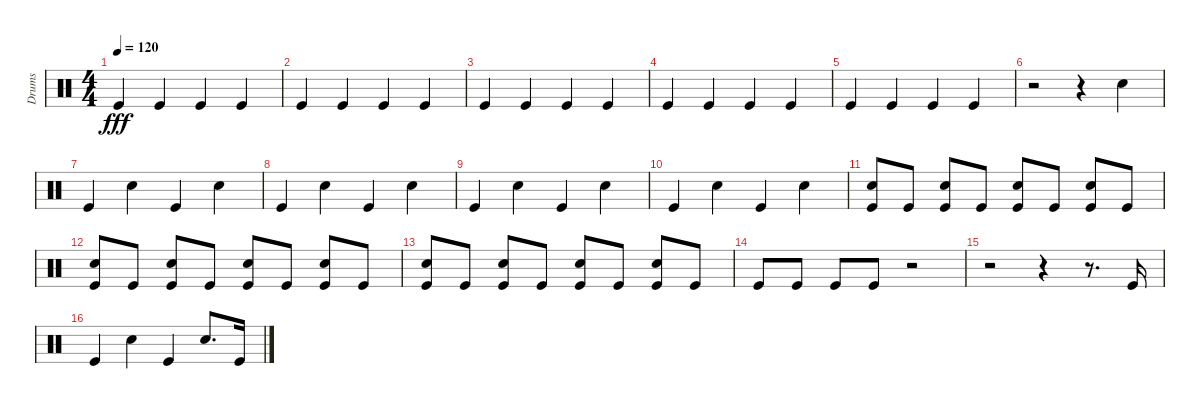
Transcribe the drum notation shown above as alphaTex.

\track ("Drums" "Drums") {instrument percussion}
\staff {score}
\articulation defaults
\ts (4 4)
\tempo 120
\clef neutral
\ks c "Kick (hit)".4{dy fff} "Kick (hit)".4 "Kick (hit)".4 "Kick (hit)".4
|
"Kick (hit)".4 "Kick (hit)".4 "Kick (hit)".4 "Kick (hit)".4 |
"Kick (hit)".4 "Kick (hit)".4 "Kick (hit)".4 "Kick (hit)".4 |
"Kick (hit)".4 "Kick (hit)".4 "Kick (hit)".4 "Kick (hit)".4 |
"Kick (hit)".4 "Kick (hit)".4 "Kick (hit)".4 "Kick (hit)".4 |
r.2 r.4 "Snare (hit) 2".4 |
"Kick (hit)".4 "Snare (hit) 2".4 "Kick (hit)".4 "Snare (hit) 2".4 |
"Kick (hit)".4 "Snare (hit) 2".4 "Kick (hit)".4 "Snare (hit) 2".4 |
"Kick (hit)".4 "Snare (hit) 2".4 "Kick (hit)".4 "Snare (hit) 2".4 |
"Kick (hit)".4 "Snare (hit) 2".4 "Kick (hit)".4 "Snare (hit) 2".4 |
("Snare (hit) 2" "Kick (hit)").8 "Kick (hit)".8 ("Snare (hit) 2" "Kick (hit)").8 "Kick (hit)".8 ("Snare (hit) 2" "Kick (hit)").8 "Kick (hit)".8 ("Snare (hit) 2" "Kick (hit)").8 "Kick (hit)".8 |
("Snare (hit) 2" "Kick (hit)").8 "Kick (hit)".8 ("Snare (hit) 2" "Kick (hit)").8 "Kick (hit)".8 ("Snare (hit) 2" "Kick (hit)").8 "Kick (hit)".8 ("Snare (hit) 2" "Kick (hit)").8 "Kick (hit)".8 |
("Snare (hit) 2" "Kick (hit)").8 "Kick (hit)".8 ("Snare (hit) 2" "Kick (hit)").8 "Kick (hit)".8 ("Snare (hit) 2" "Kick (hit)").8 "Kick (hit)".8 ("Snare (hit) 2" "Kick (hit)").8 "Kick (hit)".8 |
"Kick (hit)".8 "Kick (hit)".8 "Kick (hit)".8 "Kick (hit)".8 r.2 |
r.2 r.4 r.8{d} "Kick (hit)".16 |
"Kick (hit)".4 "Snare (hit) 2".4 "Kick (hit)".4 "Snare (hit) 2".8{d} "Kick (hit)".16
